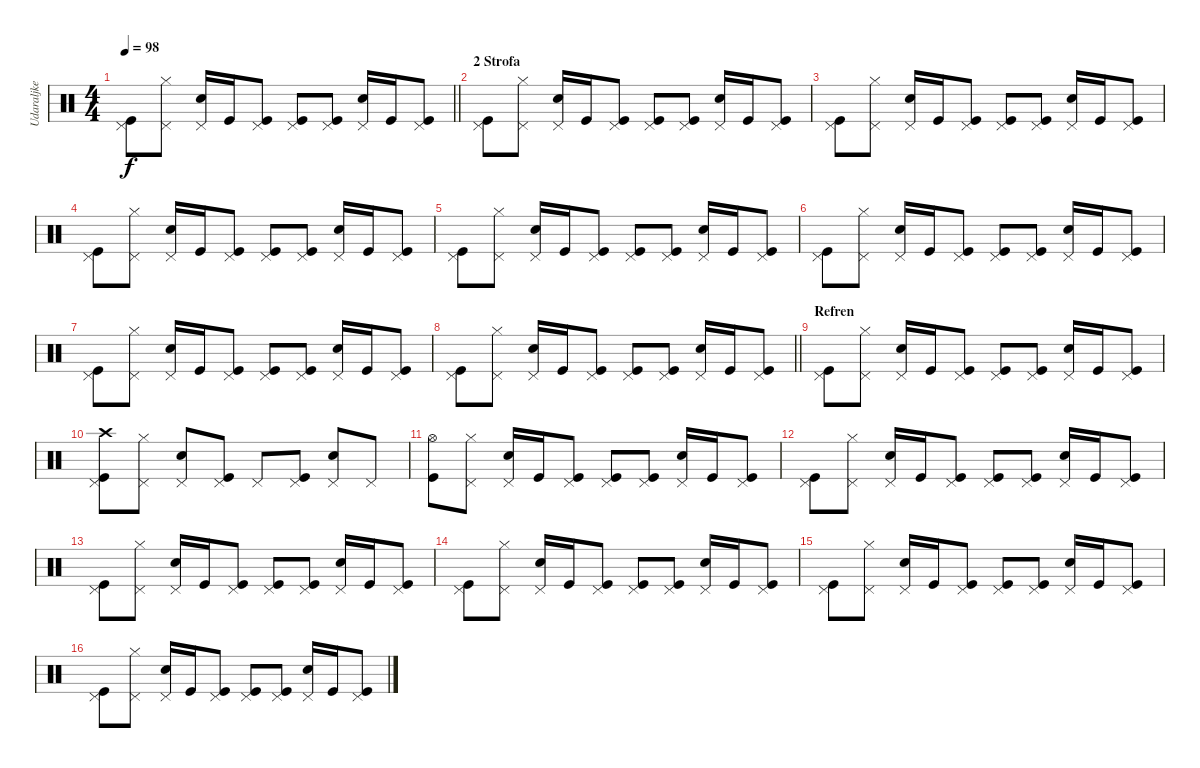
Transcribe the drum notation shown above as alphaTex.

\track ("Udaraljke" "Udaraljke") {instrument percussion}
\staff {score}
\articulation defaults
\ts (4 4)
\tempo 98
\clef neutral
\barLineRight lightlight
\ks c
("Pedal Hi-Hat (hit)" "Kick (hit)").8{dy f} ("Pedal Hi-Hat (hit)" "Hi-Hat (closed)").8 ("Pedal Hi-Hat (hit)" "Electric Snare (hit)").16 "Kick (hit)".16 ("Pedal Hi-Hat (hit)" "Kick (hit)").8 ("Pedal Hi-Hat (hit)" "Kick (hit)").8 ("Pedal Hi-Hat (hit)" "Kick (hit)").8 ("Pedal Hi-Hat (hit)" "Electric Snare (hit)").16 "Kick (hit)".16 ("Pedal Hi-Hat (hit)" "Kick (hit)").8 |
\section ("" "2 Strofa")
("Pedal Hi-Hat (hit)" "Kick (hit)").8 ("Pedal Hi-Hat (hit)" "Hi-Hat (closed)").8 ("Pedal Hi-Hat (hit)" "Electric Snare (hit)").16 "Kick (hit)".16 ("Pedal Hi-Hat (hit)" "Kick (hit)").8 ("Pedal Hi-Hat (hit)" "Kick (hit)").8 ("Pedal Hi-Hat (hit)" "Kick (hit)").8 ("Pedal Hi-Hat (hit)" "Electric Snare (hit)").16 "Kick (hit)".16 ("Pedal Hi-Hat (hit)" "Kick (hit)").8 |
("Pedal Hi-Hat (hit)" "Kick (hit)").8 ("Pedal Hi-Hat (hit)" "Hi-Hat (closed)").8 ("Pedal Hi-Hat (hit)" "Electric Snare (hit)").16 "Kick (hit)".16 ("Pedal Hi-Hat (hit)" "Kick (hit)").8 ("Pedal Hi-Hat (hit)" "Kick (hit)").8 ("Pedal Hi-Hat (hit)" "Kick (hit)").8 ("Pedal Hi-Hat (hit)" "Electric Snare (hit)").16 "Kick (hit)".16 ("Pedal Hi-Hat (hit)" "Kick (hit)").8 |
("Pedal Hi-Hat (hit)" "Kick (hit)").8 ("Pedal Hi-Hat (hit)" "Hi-Hat (closed)").8 ("Pedal Hi-Hat (hit)" "Electric Snare (hit)").16 "Kick (hit)".16 ("Pedal Hi-Hat (hit)" "Kick (hit)").8 ("Pedal Hi-Hat (hit)" "Kick (hit)").8 ("Pedal Hi-Hat (hit)" "Kick (hit)").8 ("Pedal Hi-Hat (hit)" "Electric Snare (hit)").16 "Kick (hit)".16 ("Pedal Hi-Hat (hit)" "Kick (hit)").8 |
("Pedal Hi-Hat (hit)" "Kick (hit)").8 ("Pedal Hi-Hat (hit)" "Hi-Hat (closed)").8 ("Pedal Hi-Hat (hit)" "Electric Snare (hit)").16 "Kick (hit)".16 ("Pedal Hi-Hat (hit)" "Kick (hit)").8 ("Pedal Hi-Hat (hit)" "Kick (hit)").8 ("Pedal Hi-Hat (hit)" "Kick (hit)").8 ("Pedal Hi-Hat (hit)" "Electric Snare (hit)").16 "Kick (hit)".16 ("Pedal Hi-Hat (hit)" "Kick (hit)").8 |
("Pedal Hi-Hat (hit)" "Kick (hit)").8 ("Pedal Hi-Hat (hit)" "Hi-Hat (closed)").8 ("Pedal Hi-Hat (hit)" "Electric Snare (hit)").16 "Kick (hit)".16 ("Pedal Hi-Hat (hit)" "Kick (hit)").8 ("Pedal Hi-Hat (hit)" "Kick (hit)").8 ("Pedal Hi-Hat (hit)" "Kick (hit)").8 ("Pedal Hi-Hat (hit)" "Electric Snare (hit)").16 "Kick (hit)".16 ("Pedal Hi-Hat (hit)" "Kick (hit)").8 |
("Pedal Hi-Hat (hit)" "Kick (hit)").8 ("Pedal Hi-Hat (hit)" "Hi-Hat (closed)").8 ("Pedal Hi-Hat (hit)" "Electric Snare (hit)").16 "Kick (hit)".16 ("Pedal Hi-Hat (hit)" "Kick (hit)").8 ("Pedal Hi-Hat (hit)" "Kick (hit)").8 ("Pedal Hi-Hat (hit)" "Kick (hit)").8 ("Pedal Hi-Hat (hit)" "Electric Snare (hit)").16 "Kick (hit)".16 ("Pedal Hi-Hat (hit)" "Kick (hit)").8 |
\barLineRight lightlight
("Pedal Hi-Hat (hit)" "Kick (hit)").8 ("Pedal Hi-Hat (hit)" "Hi-Hat (closed)").8 ("Pedal Hi-Hat (hit)" "Electric Snare (hit)").16 "Kick (hit)".16 ("Pedal Hi-Hat (hit)" "Kick (hit)").8 ("Pedal Hi-Hat (hit)" "Kick (hit)").8 ("Pedal Hi-Hat (hit)" "Kick (hit)").8 ("Pedal Hi-Hat (hit)" "Electric Snare (hit)").16 "Kick (hit)".16 ("Pedal Hi-Hat (hit)" "Kick (hit)").8 |
\section ("" "Refren")
("Pedal Hi-Hat (hit)" "Kick (hit)").8 ("Pedal Hi-Hat (hit)" "Hi-Hat (closed)").8 ("Pedal Hi-Hat (hit)" "Electric Snare (hit)").16 "Kick (hit)".16 ("Pedal Hi-Hat (hit)" "Kick (hit)").8 ("Pedal Hi-Hat (hit)" "Kick (hit)").8 ("Pedal Hi-Hat (hit)" "Kick (hit)").8 ("Pedal Hi-Hat (hit)" "Electric Snare (hit)").16 "Kick (hit)".16 ("Pedal Hi-Hat (hit)" "Kick (hit)").8 |
("Pedal Hi-Hat (hit)" "Crash high (hit)" "Kick (hit)").8 ("Pedal Hi-Hat (hit)" "Hi-Hat (closed)").8 ("Pedal Hi-Hat (hit)" "Electric Snare (hit)").8 ("Pedal Hi-Hat (hit)" "Kick (hit)").8 "Pedal Hi-Hat (hit)".8 ("Pedal Hi-Hat (hit)" "Kick (hit)").8 ("Pedal Hi-Hat (hit)" "Electric Snare (hit)").8 "Pedal Hi-Hat (hit)".8 |
("Hi-Hat (open)" "Kick (hit)").8 ("Pedal Hi-Hat (hit)" "Hi-Hat (closed)").8 ("Pedal Hi-Hat (hit)" "Electric Snare (hit)").16 "Kick (hit)".16 ("Pedal Hi-Hat (hit)" "Kick (hit)").8 ("Pedal Hi-Hat (hit)" "Kick (hit)").8 ("Pedal Hi-Hat (hit)" "Kick (hit)").8 ("Pedal Hi-Hat (hit)" "Electric Snare (hit)").16 "Kick (hit)".16 ("Pedal Hi-Hat (hit)" "Kick (hit)").8 |
("Pedal Hi-Hat (hit)" "Kick (hit)").8 ("Pedal Hi-Hat (hit)" "Hi-Hat (closed)").8 ("Pedal Hi-Hat (hit)" "Electric Snare (hit)").16 "Kick (hit)".16 ("Pedal Hi-Hat (hit)" "Kick (hit)").8 ("Pedal Hi-Hat (hit)" "Kick (hit)").8 ("Pedal Hi-Hat (hit)" "Kick (hit)").8 ("Pedal Hi-Hat (hit)" "Electric Snare (hit)").16 "Kick (hit)".16 ("Pedal Hi-Hat (hit)" "Kick (hit)").8 |
("Pedal Hi-Hat (hit)" "Kick (hit)").8 ("Pedal Hi-Hat (hit)" "Hi-Hat (closed)").8 ("Pedal Hi-Hat (hit)" "Electric Snare (hit)").16 "Kick (hit)".16 ("Pedal Hi-Hat (hit)" "Kick (hit)").8 ("Pedal Hi-Hat (hit)" "Kick (hit)").8 ("Pedal Hi-Hat (hit)" "Kick (hit)").8 ("Pedal Hi-Hat (hit)" "Electric Snare (hit)").16 "Kick (hit)".16 ("Pedal Hi-Hat (hit)" "Kick (hit)").8 |
("Pedal Hi-Hat (hit)" "Kick (hit)").8 ("Pedal Hi-Hat (hit)" "Hi-Hat (closed)").8 ("Pedal Hi-Hat (hit)" "Electric Snare (hit)").16 "Kick (hit)".16 ("Pedal Hi-Hat (hit)" "Kick (hit)").8 ("Pedal Hi-Hat (hit)" "Kick (hit)").8 ("Pedal Hi-Hat (hit)" "Kick (hit)").8 ("Pedal Hi-Hat (hit)" "Electric Snare (hit)").16 "Kick (hit)".16 ("Pedal Hi-Hat (hit)" "Kick (hit)").8 |
("Pedal Hi-Hat (hit)" "Kick (hit)").8 ("Pedal Hi-Hat (hit)" "Hi-Hat (closed)").8 ("Pedal Hi-Hat (hit)" "Electric Snare (hit)").16 "Kick (hit)".16 ("Pedal Hi-Hat (hit)" "Kick (hit)").8 ("Pedal Hi-Hat (hit)" "Kick (hit)").8 ("Pedal Hi-Hat (hit)" "Kick (hit)").8 ("Pedal Hi-Hat (hit)" "Electric Snare (hit)").16 "Kick (hit)".16 ("Pedal Hi-Hat (hit)" "Kick (hit)").8 |
("Pedal Hi-Hat (hit)" "Kick (hit)").8 ("Pedal Hi-Hat (hit)" "Hi-Hat (closed)").8 ("Pedal Hi-Hat (hit)" "Electric Snare (hit)").16 "Kick (hit)".16 ("Pedal Hi-Hat (hit)" "Kick (hit)").8 ("Pedal Hi-Hat (hit)" "Kick (hit)").8 ("Pedal Hi-Hat (hit)" "Kick (hit)").8 ("Pedal Hi-Hat (hit)" "Electric Snare (hit)").16 "Kick (hit)".16 ("Pedal Hi-Hat (hit)" "Kick (hit)").8
